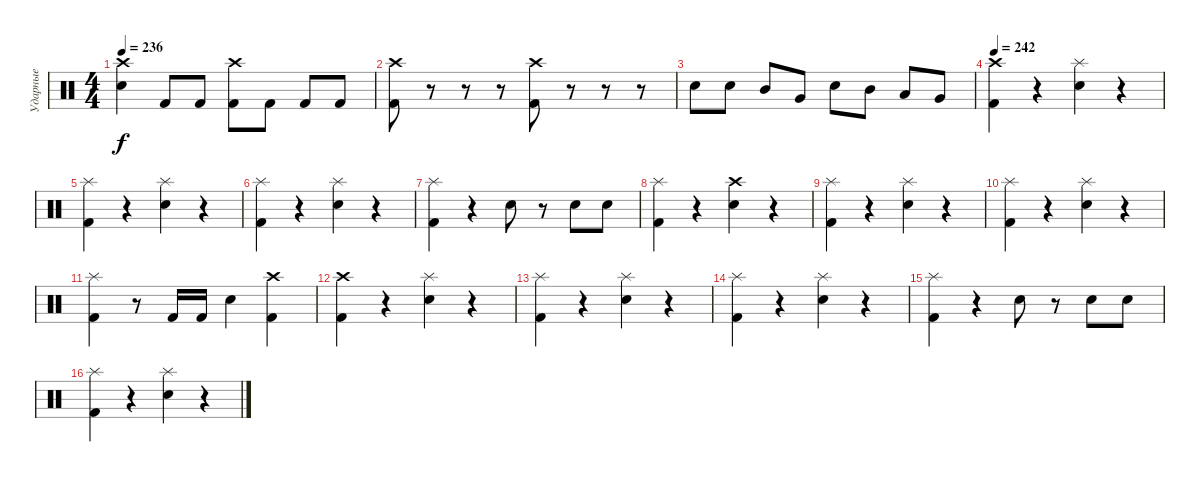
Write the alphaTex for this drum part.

\track ("Ударные" "Ударные") {instrument percussion}
\staff {score}
\articulation defaults
\ts (4 4)
\tempo 236
\clef neutral
\ks c
("Crash high (hit)" "Electric Snare (hit)").4{dy f} "Kick (hit) 2".8 "Kick (hit) 2".8 ("Crash high (hit)" "Kick (hit) 2").8 "Kick (hit) 2".8 "Kick (hit) 2".8 "Kick (hit) 2".8 |
("Crash high (hit)" "Kick (hit) 2").8 r.8 r.8 r.8 ("Crash high (hit)" "Kick (hit) 2").8 r.8 r.8 r.8 |
"Electric Snare (hit)".8 "Electric Snare (hit)".8 "Mid Tom (hit)".8 "Very Low Tom (hit)".8 "Electric Snare (hit)".8 "Mid Tom (hit)".8 "Low Tom (hit)".8 "Very Low Tom (hit)".8 |
\tempo 242
("Crash high (hit)" "Kick (hit) 2").4 r.4 ("Splash (hit)" "Electric Snare (hit)").4 r.4 |
("Splash (hit)" "Kick (hit) 2").4 r.4 ("Splash (hit)" "Electric Snare (hit)").4 r.4 |
("Splash (hit)" "Kick (hit) 2").4 r.4 ("Splash (hit)" "Electric Snare (hit)").4 r.4 |
("Splash (hit)" "Kick (hit) 2").4 r.4 "Electric Snare (hit)".8 r.8 "Electric Snare (hit)".8 "Electric Snare (hit)".8 |
("Splash (hit)" "Kick (hit) 2").4 r.4 ("Crash high (hit)" "Electric Snare (hit)").4 r.4 |
("Splash (hit)" "Kick (hit) 2").4 r.4 ("Splash (hit)" "Electric Snare (hit)").4 r.4 |
("Splash (hit)" "Kick (hit) 2").4 r.4 ("Splash (hit)" "Electric Snare (hit)").4 r.4 |
("Splash (hit)" "Kick (hit) 2").4 r.8 "Kick (hit) 2".16 "Kick (hit) 2".16 "Electric Snare (hit)".4 ("Crash high (hit)" "Kick (hit) 2").4 |
("Crash high (hit)" "Kick (hit) 2").4 r.4 ("Splash (hit)" "Electric Snare (hit)").4 r.4 |
("Splash (hit)" "Kick (hit) 2").4 r.4 ("Splash (hit)" "Electric Snare (hit)").4 r.4 |
("Splash (hit)" "Kick (hit) 2").4 r.4 ("Splash (hit)" "Electric Snare (hit)").4 r.4 |
("Splash (hit)" "Kick (hit) 2").4 r.4 "Electric Snare (hit)".8 r.8 "Electric Snare (hit)".8 "Electric Snare (hit)".8 |
("Splash (hit)" "Kick (hit) 2").4 r.4 ("Splash (hit)" "Electric Snare (hit)").4 r.4
